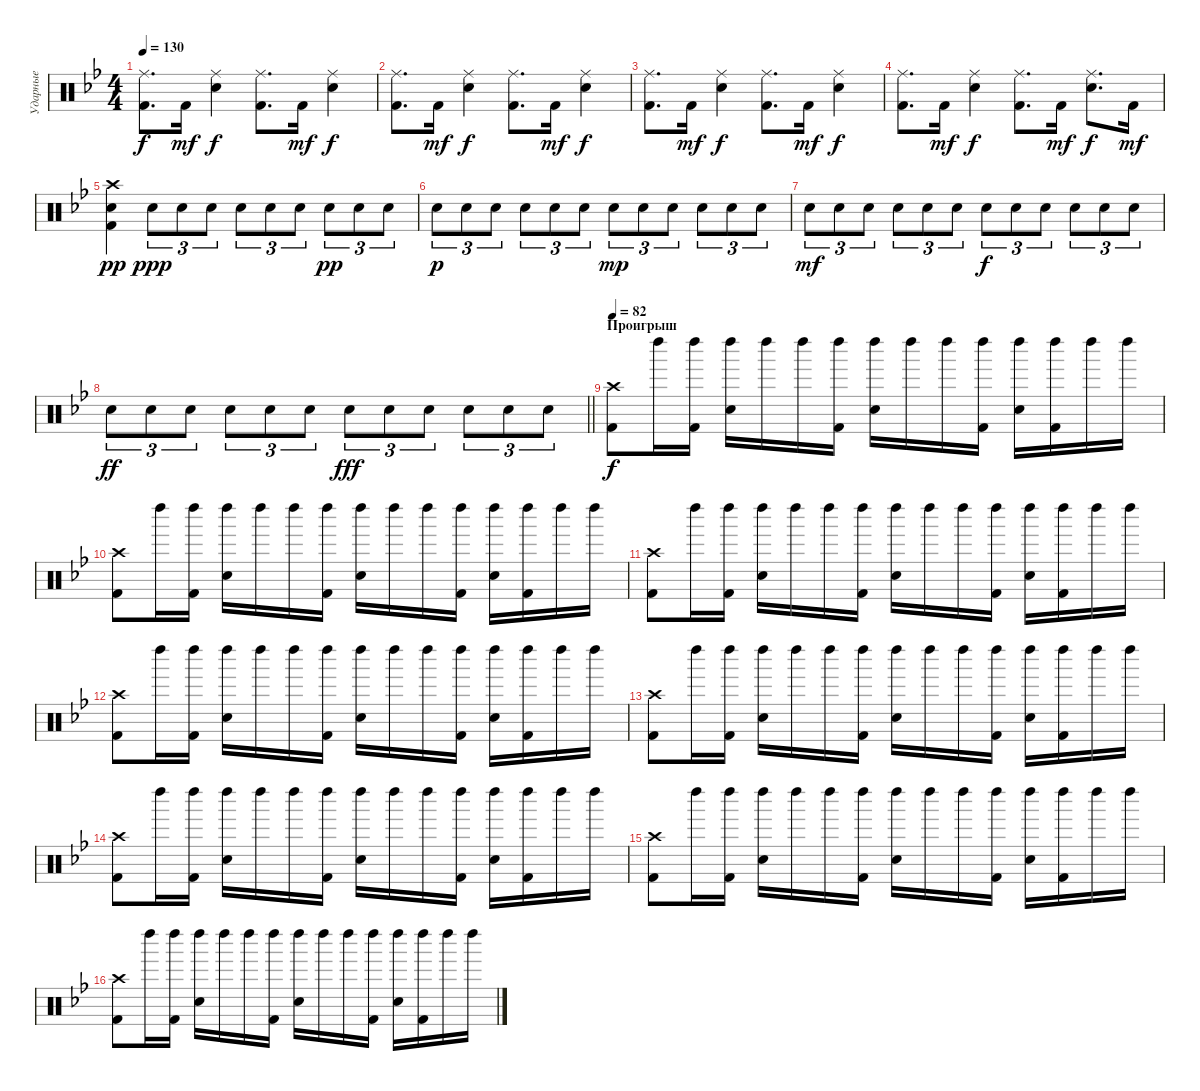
\track ("Ударные" "Ударные") {instrument percussion}
\staff {score}
\articulation defaults
\ts (4 4)
\tempo 130
\clef neutral
\ks gminor
("Ride (middle)" "Kick (hit) 2").8{d dy f} "Kick (hit) 2".16{dy mf} ("Ride (middle)" "Snare (hit) 2").4{dy f} ("Ride (middle)" "Kick (hit) 2").8{d} "Kick (hit) 2".16{dy mf} ("Ride (middle)" "Snare (hit) 2").4{dy f} |
("Ride (middle)" "Kick (hit) 2").8{d} "Kick (hit) 2".16{dy mf} ("Ride (middle)" "Snare (hit) 2").4{dy f} ("Ride (middle)" "Kick (hit) 2").8{d} "Kick (hit) 2".16{dy mf} ("Ride (middle)" "Snare (hit) 2").4{dy f} |
("Ride (middle)" "Kick (hit) 2").8{d} "Kick (hit) 2".16{dy mf} ("Ride (middle)" "Snare (hit) 2").4{dy f} ("Ride (middle)" "Kick (hit) 2").8{d} "Kick (hit) 2".16{dy mf} ("Ride (middle)" "Snare (hit) 2").4{dy f} |
("Ride (middle)" "Kick (hit) 2").8{d} "Kick (hit) 2".16{dy mf} ("Ride (middle)" "Snare (hit) 2").4{dy f} ("Ride (middle)" "Kick (hit) 2").8{d} "Kick (hit) 2".16{dy mf} ("Ride (middle)" "Snare (hit) 2").8{d dy f} "Kick (hit) 2".16{dy mf} |
("Crash high (hit)" "Snare (hit) 2" "Kick (hit) 2").4{dy pp} "Snare (hit) 2".8{tu (3 2) dy ppp} "Snare (hit) 2".8{tu (3 2)} "Snare (hit) 2".8{tu (3 2)} "Snare (hit) 2".8{tu (3 2)} "Snare (hit) 2".8{tu (3 2)} "Snare (hit) 2".8{tu (3 2)} "Snare (hit) 2".8{tu (3 2) dy pp} "Snare (hit) 2".8{tu (3 2)} "Snare (hit) 2".8{tu (3 2)} |
"Snare (hit) 2".8{tu (3 2) dy p} "Snare (hit) 2".8{tu (3 2)} "Snare (hit) 2".8{tu (3 2)} "Snare (hit) 2".8{tu (3 2)} "Snare (hit) 2".8{tu (3 2)} "Snare (hit) 2".8{tu (3 2)} "Snare (hit) 2".8{tu (3 2) dy mp} "Snare (hit) 2".8{tu (3 2)} "Snare (hit) 2".8{tu (3 2)} "Snare (hit) 2".8{tu (3 2)} "Snare (hit) 2".8{tu (3 2)} "Snare (hit) 2".8{tu (3 2)} |
"Snare (hit) 2".8{tu (3 2) dy mf} "Snare (hit) 2".8{tu (3 2)} "Snare (hit) 2".8{tu (3 2)} "Snare (hit) 2".8{tu (3 2)} "Snare (hit) 2".8{tu (3 2)} "Snare (hit) 2".8{tu (3 2)} "Snare (hit) 2".8{tu (3 2) dy f} "Snare (hit) 2".8{tu (3 2)} "Snare (hit) 2".8{tu (3 2)} "Snare (hit) 2".8{tu (3 2)} "Snare (hit) 2".8{tu (3 2)} "Snare (hit) 2".8{tu (3 2)} |
\barLineRight lightlight "Snare (hit) 2".8{tu (3 2) dy ff} "Snare (hit) 2".8{tu (3 2)} "Snare (hit) 2".8{tu (3 2)} "Snare (hit) 2".8{tu (3 2)} "Snare (hit) 2".8{tu (3 2)} "Snare (hit) 2".8{tu (3 2)} "Snare (hit) 2".8{tu (3 2) dy fff} "Snare (hit) 2".8{tu (3 2)} "Snare (hit) 2".8{tu (3 2)} "Snare (hit) 2".8{tu (3 2)} "Snare (hit) 2".8{tu (3 2)} "Snare (hit) 2".8{tu (3 2)}
|
\section ("" "Проигрыш")
\tempo 82
("Crash high (hit)" "Kick (hit) 2").8{dy f} "Left Maraca (hit)".16 ("Left Maraca (hit)" "Kick (hit) 2").16 ("Left Maraca (hit)" "Snare (hit) 2").16 "Left Maraca (hit)".16 "Left Maraca (hit)".16 ("Left Maraca (hit)" "Kick (hit) 2").16 ("Left Maraca (hit)" "Snare (hit) 2").16 "Left Maraca (hit)".16 "Left Maraca (hit)".16 ("Left Maraca (hit)" "Kick (hit) 2").16 ("Left Maraca (hit)" "Snare (hit) 2").16 ("Left Maraca (hit)" "Kick (hit) 2").16 "Left Maraca (hit)".16 "Left Maraca (hit)".16 |
("Crash high (hit)" "Kick (hit) 2").8 "Left Maraca (hit)".16 ("Left Maraca (hit)" "Kick (hit) 2").16 ("Left Maraca (hit)" "Snare (hit) 2").16 "Left Maraca (hit)".16 "Left Maraca (hit)".16 ("Left Maraca (hit)" "Kick (hit) 2").16 ("Left Maraca (hit)" "Snare (hit) 2").16 "Left Maraca (hit)".16 "Left Maraca (hit)".16 ("Left Maraca (hit)" "Kick (hit) 2").16 ("Left Maraca (hit)" "Snare (hit) 2").16 ("Left Maraca (hit)" "Kick (hit) 2").16 "Left Maraca (hit)".16 "Left Maraca (hit)".16 |
("Crash high (hit)" "Kick (hit) 2").8 "Left Maraca (hit)".16 ("Left Maraca (hit)" "Kick (hit) 2").16 ("Left Maraca (hit)" "Snare (hit) 2").16 "Left Maraca (hit)".16 "Left Maraca (hit)".16 ("Left Maraca (hit)" "Kick (hit) 2").16 ("Left Maraca (hit)" "Snare (hit) 2").16 "Left Maraca (hit)".16 "Left Maraca (hit)".16 ("Left Maraca (hit)" "Kick (hit) 2").16 ("Left Maraca (hit)" "Snare (hit) 2").16 ("Left Maraca (hit)" "Kick (hit) 2").16 "Left Maraca (hit)".16 "Left Maraca (hit)".16 |
("Crash high (hit)" "Kick (hit) 2").8 "Left Maraca (hit)".16 ("Left Maraca (hit)" "Kick (hit) 2").16 ("Left Maraca (hit)" "Snare (hit) 2").16 "Left Maraca (hit)".16 "Left Maraca (hit)".16 ("Left Maraca (hit)" "Kick (hit) 2").16 ("Left Maraca (hit)" "Snare (hit) 2").16 "Left Maraca (hit)".16 "Left Maraca (hit)".16 ("Left Maraca (hit)" "Kick (hit) 2").16 ("Left Maraca (hit)" "Snare (hit) 2").16 ("Left Maraca (hit)" "Kick (hit) 2").16 "Left Maraca (hit)".16 "Left Maraca (hit)".16 |
("Crash high (hit)" "Kick (hit) 2").8 "Left Maraca (hit)".16 ("Left Maraca (hit)" "Kick (hit) 2").16 ("Left Maraca (hit)" "Snare (hit) 2").16 "Left Maraca (hit)".16 "Left Maraca (hit)".16 ("Left Maraca (hit)" "Kick (hit) 2").16 ("Left Maraca (hit)" "Snare (hit) 2").16 "Left Maraca (hit)".16 "Left Maraca (hit)".16 ("Left Maraca (hit)" "Kick (hit) 2").16 ("Left Maraca (hit)" "Snare (hit) 2").16 ("Left Maraca (hit)" "Kick (hit) 2").16 "Left Maraca (hit)".16 "Left Maraca (hit)".16 |
("Crash high (hit)" "Kick (hit) 2").8 "Left Maraca (hit)".16 ("Left Maraca (hit)" "Kick (hit) 2").16 ("Left Maraca (hit)" "Snare (hit) 2").16 "Left Maraca (hit)".16 "Left Maraca (hit)".16 ("Left Maraca (hit)" "Kick (hit) 2").16 ("Left Maraca (hit)" "Snare (hit) 2").16 "Left Maraca (hit)".16 "Left Maraca (hit)".16 ("Left Maraca (hit)" "Kick (hit) 2").16 ("Left Maraca (hit)" "Snare (hit) 2").16 ("Left Maraca (hit)" "Kick (hit) 2").16 "Left Maraca (hit)".16 "Left Maraca (hit)".16 |
("Crash high (hit)" "Kick (hit) 2").8 "Left Maraca (hit)".16 ("Left Maraca (hit)" "Kick (hit) 2").16 ("Left Maraca (hit)" "Snare (hit) 2").16 "Left Maraca (hit)".16 "Left Maraca (hit)".16 ("Left Maraca (hit)" "Kick (hit) 2").16 ("Left Maraca (hit)" "Snare (hit) 2").16 "Left Maraca (hit)".16 "Left Maraca (hit)".16 ("Left Maraca (hit)" "Kick (hit) 2").16 ("Left Maraca (hit)" "Snare (hit) 2").16 ("Left Maraca (hit)" "Kick (hit) 2").16 "Left Maraca (hit)".16 "Left Maraca (hit)".16 |
("Crash high (hit)" "Kick (hit) 2").8 "Left Maraca (hit)".16 ("Left Maraca (hit)" "Kick (hit) 2").16 ("Left Maraca (hit)" "Snare (hit) 2").16 "Left Maraca (hit)".16 "Left Maraca (hit)".16 ("Left Maraca (hit)" "Kick (hit) 2").16 ("Left Maraca (hit)" "Snare (hit) 2").16 "Left Maraca (hit)".16 "Left Maraca (hit)".16 ("Left Maraca (hit)" "Kick (hit) 2").16 ("Left Maraca (hit)" "Snare (hit) 2").16 ("Left Maraca (hit)" "Kick (hit) 2").16 "Left Maraca (hit)".16 "Left Maraca (hit)".16
